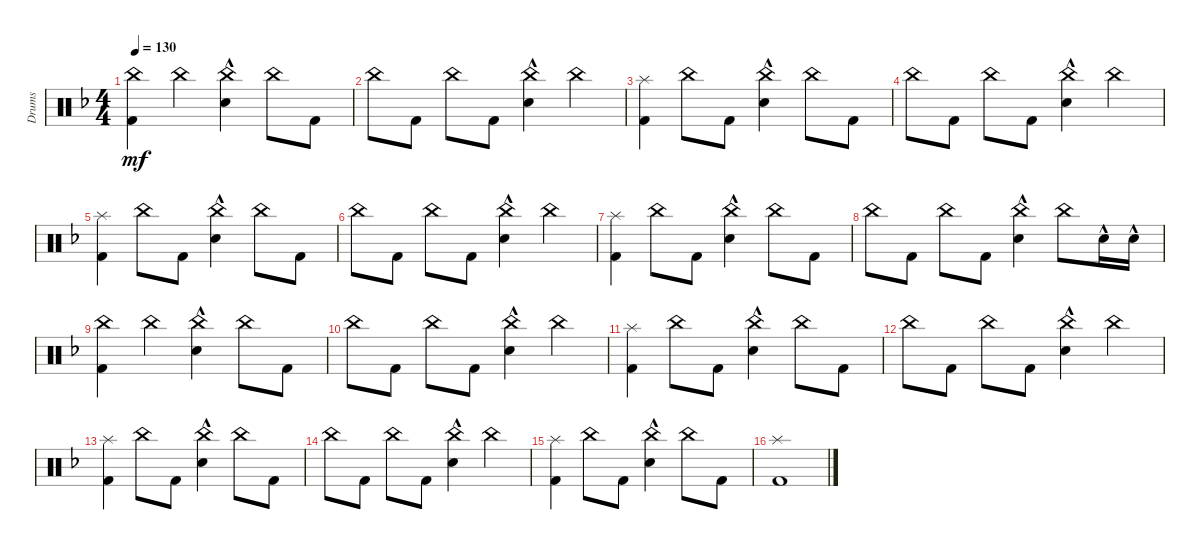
\defaultSystemsLayout 4
\bracketExtendMode groupsimilarinstruments
\otherSystemsTrackNameOrientation horizontal
\track ("Drumkit" "Drums") {instrument percussion}
\staff {score}
\articulation defaults
\ts (4 4)
\tempo 130
\clef neutral
\scale
0.321839
\ks f
("China (hit)"{acc forcenatural} "Kick (hit) 2"{acc forcenatural}).4{dy mf beam Down} "China (hit)"{acc forcenatural}.4{beam Down} ("China (hit)"{acc forcenatural} "Snare (hit) 2"{hac acc forcenatural}).4{beam Down} "China (hit)"{acc forcenatural}.8{beam Down} "Kick (hit) 2"{acc forcenatural}.8{beam Down} |
\scale
0.321839 "China (hit)"{acc forcenatural}.8{beam Down} "Kick (hit) 2"{acc forcenatural}.8{beam Down} "China (hit)"{acc forcenatural}.8{beam Down} "Kick (hit) 2"{acc forcenatural}.8{beam Down} ("China (hit)"{acc forcenatural} "Snare (hit) 2"{hac acc forcenatural}).4{beam Down} "China (hit)"{acc forcenatural}.4{beam Down} |
\scale
0.333333 ("Splash (hit)"{acc forcenatural} "Kick (hit) 2"{acc forcenatural}).4{beam Down} "China (hit)"{acc forcenatural}.8{beam Down} "Kick (hit) 2"{acc forcenatural}.8{beam Down} ("Snare (hit) 2"{hac acc forcenatural} "China (hit)"{acc forcenatural}).4{beam Down} "China (hit)"{acc forcenatural}.8{beam Down} "Kick (hit) 2"{acc forcenatural}.8{beam Down} |
\scale
0.333333 "China (hit)"{acc forcenatural}.8{beam Down} "Kick (hit) 2"{acc forcenatural}.8{beam Down} "China (hit)"{acc forcenatural}.8{beam Down} "Kick (hit) 2"{acc forcenatural}.8{beam Down} ("China (hit)"{acc forcenatural} "Snare (hit) 2"{hac acc forcenatural}).4{beam Down} "China (hit)"{acc forcenatural}.4{beam Down} |
\scale
0.333333 ("Splash (hit)"{acc forcenatural} "Kick (hit) 2"{acc forcenatural}).4{beam Down} "China (hit)"{acc forcenatural}.8{beam Down} "Kick (hit) 2"{acc forcenatural}.8{beam Down} ("Snare (hit) 2"{hac acc forcenatural} "China (hit)"{acc forcenatural}).4{beam Down} "China (hit)"{acc forcenatural}.8{beam Down} "Kick (hit) 2"{acc forcenatural}.8{beam Down} |
\scale
0.333333 "China (hit)"{acc forcenatural}.8{beam Down} "Kick (hit) 2"{acc forcenatural}.8{beam Down} "China (hit)"{acc forcenatural}.8{beam Down} "Kick (hit) 2"{acc forcenatural}.8{beam Down} ("China (hit)"{acc forcenatural} "Snare (hit) 2"{hac acc forcenatural}).4{beam Down} "China (hit)"{acc forcenatural}.4{beam Down} |
\scale
0.333333 ("Splash (hit)"{acc forcenatural} "Kick (hit) 2"{acc forcenatural}).4{beam Down} "China (hit)"{acc forcenatural}.8{beam Down} "Kick (hit) 2"{acc forcenatural}.8{beam Down} ("Snare (hit) 2"{hac acc forcenatural} "China (hit)"{acc forcenatural}).4{beam Down} "China (hit)"{acc forcenatural}.8{beam Down} "Kick (hit) 2"{acc forcenatural}.8{beam Down} |
\scale
0.333333 "China (hit)"{acc forcenatural}.8{beam Down} "Kick (hit) 2"{acc forcenatural}.8{beam Down} "China (hit)"{acc forcenatural}.8{beam Down} "Kick (hit) 2"{acc forcenatural}.8{beam Down} ("China (hit)"{acc forcenatural} "Snare (hit) 2"{hac acc forcenatural}).4{beam Down} "China (hit)"{acc forcenatural}.8{beam Down} "Snare (hit) 2"{hac acc forcenatural}.16{beam Down} "Snare (hit) 2"{hac acc forcenatural}.16{beam Down} |
\scale
0.333333 ("China (hit)"{acc forcenatural} "Kick (hit) 2"{acc forcenatural}).4{beam Down} "China (hit)"{acc forcenatural}.4{beam Down} ("China (hit)"{acc forcenatural} "Snare (hit) 2"{hac acc forcenatural}).4{beam Down} "China (hit)"{acc forcenatural}.8{beam Down} "Kick (hit) 2"{acc forcenatural}.8{beam Down} |
\scale
0.333333 "China (hit)"{acc forcenatural}.8{beam Down} "Kick (hit) 2"{acc forcenatural}.8{beam Down} "China (hit)"{acc forcenatural}.8{beam Down} "Kick (hit) 2"{acc forcenatural}.8{beam Down} ("China (hit)"{acc forcenatural} "Snare (hit) 2"{hac acc forcenatural}).4{beam Down} "China (hit)"{acc forcenatural}.4{beam Down} |
\scale
0.333333 ("Splash (hit)"{acc forcenatural} "Kick (hit) 2"{acc forcenatural}).4{beam Down} "China (hit)"{acc forcenatural}.8{beam Down} "Kick (hit) 2"{acc forcenatural}.8{beam Down} ("Snare (hit) 2"{hac acc forcenatural} "China (hit)"{acc forcenatural}).4{beam Down} "China (hit)"{acc forcenatural}.8{beam Down} "Kick (hit) 2"{acc forcenatural}.8{beam Down} |
\scale
0.333333 "China (hit)"{acc forcenatural}.8{beam Down} "Kick (hit) 2"{acc forcenatural}.8{beam Down} "China (hit)"{acc forcenatural}.8{beam Down} "Kick (hit) 2"{acc forcenatural}.8{beam Down} ("China (hit)"{acc forcenatural} "Snare (hit) 2"{hac acc forcenatural}).4{beam Down} "China (hit)"{acc forcenatural}.4{beam Down} |
\scale
0.333333 ("Splash (hit)"{acc forcenatural} "Kick (hit) 2"{acc forcenatural}).4{beam Down} "China (hit)"{acc forcenatural}.8{beam Down} "Kick (hit) 2"{acc forcenatural}.8{beam Down} ("Snare (hit) 2"{hac acc forcenatural} "China (hit)"{acc forcenatural}).4{beam Down} "China (hit)"{acc forcenatural}.8{beam Down} "Kick (hit) 2"{acc forcenatural}.8{beam Down} |
\scale
0.333333 "China (hit)"{acc forcenatural}.8{beam Down} "Kick (hit) 2"{acc forcenatural}.8{beam Down} "China (hit)"{acc forcenatural}.8{beam Down} "Kick (hit) 2"{acc forcenatural}.8{beam Down} ("China (hit)"{acc forcenatural} "Snare (hit) 2"{hac acc forcenatural}).4{beam Down} "China (hit)"{acc forcenatural}.4{beam Down} |
\scale
0.333333 ("Splash (hit)"{acc forcenatural} "Kick (hit) 2"{acc forcenatural}).4{beam Down} "China (hit)"{acc forcenatural}.8{beam Down} "Kick (hit) 2"{acc forcenatural}.8{beam Down} ("Snare (hit) 2"{hac acc forcenatural} "China (hit)"{acc forcenatural}).4{beam Down} "China (hit)"{acc forcenatural}.8{beam Down} "Kick (hit) 2"{acc forcenatural}.8{beam Down} |
\scale
0.333333 ("Kick (hit) 2"{acc forcenatural} "Splash (hit)"{acc forcenatural}).1{beam Down}
